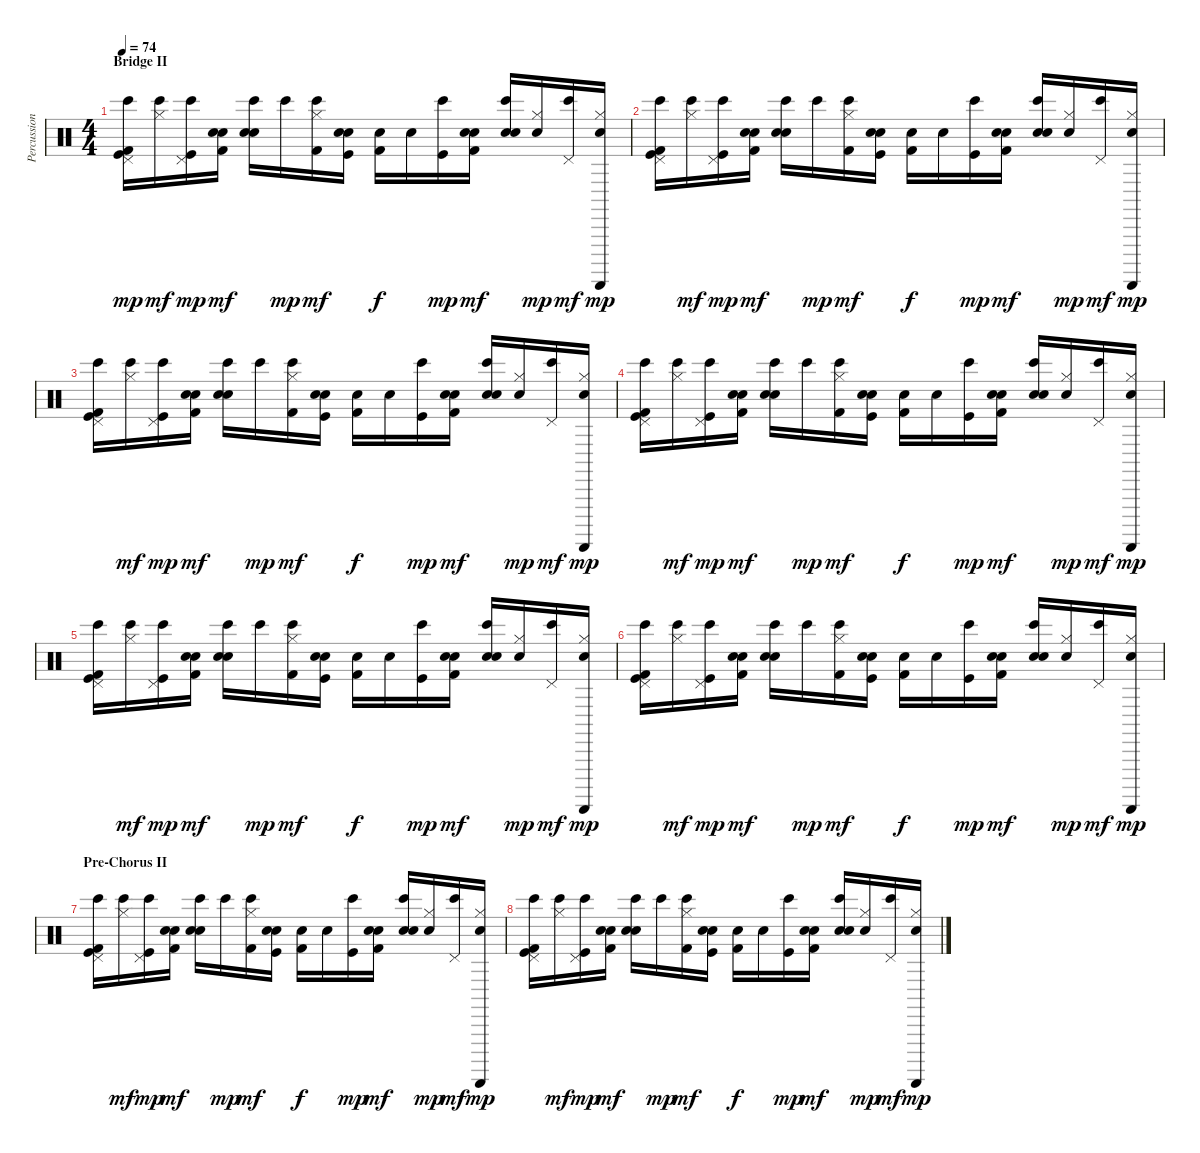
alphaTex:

\track ("Percussion" "Percussion") {instrument percussion}
\staff {score}
\articulation defaults
\ts (4 4)
\section ("" "Bridge II")
\tempo 74
\clef neutral
\ks c
("Bongo High (hit)" "Pedal Hi-Hat (hit)" "Kick (hit) 2" "Kick (hit)").16{dy mp} ("Bongo High (hit)" "Hi-Hat (closed)").16{dy mf} ("Bongo High (hit)" "Pedal Hi-Hat (hit)" "Kick (hit)").16{dy mp} ("Snare (hit)" "Electric Snare (hit)" "Kick (hit) 2").16{dy mf} ("Bongo High (hit)" "Electric Snare (hit)" "Snare (hit) 2").16 "Bongo High (hit)".16{dy mp} ("Bongo High (hit)" "Hi-Hat (closed)" "Kick (hit) 2").16{dy mf} ("Snare (hit)" "Electric Snare (hit)" "Kick (hit)").16 ("Snare (hit)" "Kick (hit) 2").16{dy f} "Snare (hit)".16 ("Bongo High (hit)" "Kick (hit)").16{dy mp} ("Snare (hit)" "Electric Snare (hit)" "Kick (hit) 2").16{dy mf} ("Bongo High (hit)" "Electric Snare (hit)" "Snare (hit) 2").16 ("Snare (hit)" "Hi-Hat (closed)").16{dy mp} ("Bongo High (hit)" "Pedal Hi-Hat (hit)").16{dy mf} ("Snare (hit)" "Guiro (scrap-return)" "Hi-Hat (closed)").16{dy mp} |
("Bongo High (hit)" "Pedal Hi-Hat (hit)" "Kick (hit) 2" "Kick (hit)").16 ("Bongo High (hit)" "Hi-Hat (closed)").16{dy mf} ("Bongo High (hit)" "Pedal Hi-Hat (hit)" "Kick (hit)").16{dy mp} ("Snare (hit)" "Electric Snare (hit)" "Kick (hit) 2").16{dy mf} ("Bongo High (hit)" "Electric Snare (hit)" "Snare (hit) 2").16 "Bongo High (hit)".16{dy mp} ("Bongo High (hit)" "Hi-Hat (closed)" "Kick (hit) 2").16{dy mf} ("Snare (hit)" "Electric Snare (hit)" "Kick (hit)").16 ("Snare (hit)" "Kick (hit) 2").16{dy f} "Snare (hit)".16 ("Bongo High (hit)" "Kick (hit)").16{dy mp} ("Snare (hit)" "Electric Snare (hit)" "Kick (hit) 2").16{dy mf} ("Bongo High (hit)" "Electric Snare (hit)" "Snare (hit) 2").16 ("Snare (hit)" "Hi-Hat (closed)").16{dy mp} ("Bongo High (hit)" "Pedal Hi-Hat (hit)").16{dy mf} ("Snare (hit)" "Guiro (scrap-return)" "Hi-Hat (closed)").16{dy mp} |
("Bongo High (hit)" "Pedal Hi-Hat (hit)" "Kick (hit) 2" "Kick (hit)").16 ("Bongo High (hit)" "Hi-Hat (closed)").16{dy mf} ("Bongo High (hit)" "Pedal Hi-Hat (hit)" "Kick (hit)").16{dy mp} ("Snare (hit)" "Electric Snare (hit)" "Kick (hit) 2").16{dy mf} ("Bongo High (hit)" "Electric Snare (hit)" "Snare (hit) 2").16 "Bongo High (hit)".16{dy mp} ("Bongo High (hit)" "Hi-Hat (closed)" "Kick (hit) 2").16{dy mf} ("Snare (hit)" "Electric Snare (hit)" "Kick (hit)").16 ("Snare (hit)" "Kick (hit) 2").16{dy f} "Snare (hit)".16 ("Bongo High (hit)" "Kick (hit)").16{dy mp} ("Snare (hit)" "Electric Snare (hit)" "Kick (hit) 2").16{dy mf} ("Bongo High (hit)" "Electric Snare (hit)" "Snare (hit) 2").16 ("Snare (hit)" "Hi-Hat (closed)").16{dy mp} ("Bongo High (hit)" "Pedal Hi-Hat (hit)").16{dy mf} ("Snare (hit)" "Guiro (scrap-return)" "Hi-Hat (closed)").16{dy mp} |
("Bongo High (hit)" "Pedal Hi-Hat (hit)" "Kick (hit) 2" "Kick (hit)").16 ("Bongo High (hit)" "Hi-Hat (closed)").16{dy mf} ("Bongo High (hit)" "Pedal Hi-Hat (hit)" "Kick (hit)").16{dy mp} ("Snare (hit)" "Electric Snare (hit)" "Kick (hit) 2").16{dy mf} ("Bongo High (hit)" "Electric Snare (hit)" "Snare (hit) 2").16 "Bongo High (hit)".16{dy mp} ("Bongo High (hit)" "Hi-Hat (closed)" "Kick (hit) 2").16{dy mf} ("Snare (hit)" "Electric Snare (hit)" "Kick (hit)").16 ("Snare (hit)" "Kick (hit) 2").16{dy f} "Snare (hit)".16 ("Bongo High (hit)" "Kick (hit)").16{dy mp} ("Snare (hit)" "Electric Snare (hit)" "Kick (hit) 2").16{dy mf} ("Bongo High (hit)" "Electric Snare (hit)" "Snare (hit) 2").16 ("Snare (hit)" "Hi-Hat (closed)").16{dy mp} ("Bongo High (hit)" "Pedal Hi-Hat (hit)").16{dy mf} ("Snare (hit)" "Guiro (scrap-return)" "Hi-Hat (closed)").16{dy mp} |
("Bongo High (hit)" "Pedal Hi-Hat (hit)" "Kick (hit) 2" "Kick (hit)").16 ("Bongo High (hit)" "Hi-Hat (closed)").16{dy mf} ("Bongo High (hit)" "Pedal Hi-Hat (hit)" "Kick (hit)").16{dy mp} ("Snare (hit)" "Electric Snare (hit)" "Kick (hit) 2").16{dy mf} ("Bongo High (hit)" "Electric Snare (hit)" "Snare (hit) 2").16 "Bongo High (hit)".16{dy mp} ("Bongo High (hit)" "Hi-Hat (closed)" "Kick (hit) 2").16{dy mf} ("Snare (hit)" "Electric Snare (hit)" "Kick (hit)").16 ("Snare (hit)" "Kick (hit) 2").16{dy f} "Snare (hit)".16 ("Bongo High (hit)" "Kick (hit)").16{dy mp} ("Snare (hit)" "Electric Snare (hit)" "Kick (hit) 2").16{dy mf} ("Bongo High (hit)" "Electric Snare (hit)" "Snare (hit) 2").16 ("Snare (hit)" "Hi-Hat (closed)").16{dy mp} ("Bongo High (hit)" "Pedal Hi-Hat (hit)").16{dy mf} ("Snare (hit)" "Guiro (scrap-return)" "Hi-Hat (closed)").16{dy mp} |
("Bongo High (hit)" "Pedal Hi-Hat (hit)" "Kick (hit) 2" "Kick (hit)").16 ("Bongo High (hit)" "Hi-Hat (closed)").16{dy mf} ("Bongo High (hit)" "Pedal Hi-Hat (hit)" "Kick (hit)").16{dy mp} ("Snare (hit)" "Electric Snare (hit)" "Kick (hit) 2").16{dy mf} ("Bongo High (hit)" "Electric Snare (hit)" "Snare (hit) 2").16 "Bongo High (hit)".16{dy mp} ("Bongo High (hit)" "Hi-Hat (closed)" "Kick (hit) 2").16{dy mf} ("Snare (hit)" "Electric Snare (hit)" "Kick (hit)").16 ("Snare (hit)" "Kick (hit) 2").16{dy f} "Snare (hit)".16 ("Bongo High (hit)" "Kick (hit)").16{dy mp} ("Snare (hit)" "Electric Snare (hit)" "Kick (hit) 2").16{dy mf} ("Bongo High (hit)" "Electric Snare (hit)" "Snare (hit) 2").16 ("Snare (hit)" "Hi-Hat (closed)").16{dy mp} ("Bongo High (hit)" "Pedal Hi-Hat (hit)").16{dy mf} ("Snare (hit)" "Guiro (scrap-return)" "Hi-Hat (closed)").16{dy mp} |
\section ("" "Pre-Chorus II")
("Bongo High (hit)" "Pedal Hi-Hat (hit)" "Kick (hit) 2" "Kick (hit)").16 ("Bongo High (hit)" "Hi-Hat (closed)").16{dy mf} ("Bongo High (hit)" "Pedal Hi-Hat (hit)" "Kick (hit)").16{dy mp} ("Snare (hit)" "Electric Snare (hit)" "Kick (hit) 2").16{dy mf} ("Bongo High (hit)" "Electric Snare (hit)" "Snare (hit) 2").16 "Bongo High (hit)".16{dy mp} ("Bongo High (hit)" "Hi-Hat (closed)" "Kick (hit) 2").16{dy mf} ("Snare (hit)" "Electric Snare (hit)" "Kick (hit)").16 ("Snare (hit)" "Kick (hit) 2").16{dy f} "Snare (hit)".16 ("Bongo High (hit)" "Kick (hit)").16{dy mp} ("Snare (hit)" "Electric Snare (hit)" "Kick (hit) 2").16{dy mf} ("Bongo High (hit)" "Electric Snare (hit)" "Snare (hit) 2").16 ("Snare (hit)" "Hi-Hat (closed)").16{dy mp} ("Bongo High (hit)" "Pedal Hi-Hat (hit)").16{dy mf} ("Snare (hit)" "Guiro (scrap-return)" "Hi-Hat (closed)").16{dy mp} |
("Bongo High (hit)" "Pedal Hi-Hat (hit)" "Kick (hit) 2" "Kick (hit)").16 ("Bongo High (hit)" "Hi-Hat (closed)").16{dy mf} ("Bongo High (hit)" "Pedal Hi-Hat (hit)" "Kick (hit)").16{dy mp} ("Snare (hit)" "Electric Snare (hit)" "Kick (hit) 2").16{dy mf} ("Bongo High (hit)" "Electric Snare (hit)" "Snare (hit) 2").16 "Bongo High (hit)".16{dy mp} ("Bongo High (hit)" "Hi-Hat (closed)" "Kick (hit) 2").16{dy mf} ("Snare (hit)" "Electric Snare (hit)" "Kick (hit)").16 ("Snare (hit)" "Kick (hit) 2").16{dy f} "Snare (hit)".16 ("Bongo High (hit)" "Kick (hit)").16{dy mp} ("Snare (hit)" "Electric Snare (hit)" "Kick (hit) 2").16{dy mf} ("Bongo High (hit)" "Electric Snare (hit)" "Snare (hit) 2").16 ("Snare (hit)" "Hi-Hat (closed)").16{dy mp} ("Bongo High (hit)" "Pedal Hi-Hat (hit)").16{dy mf} ("Snare (hit)" "Guiro (scrap-return)" "Hi-Hat (closed)").16{dy mp}
